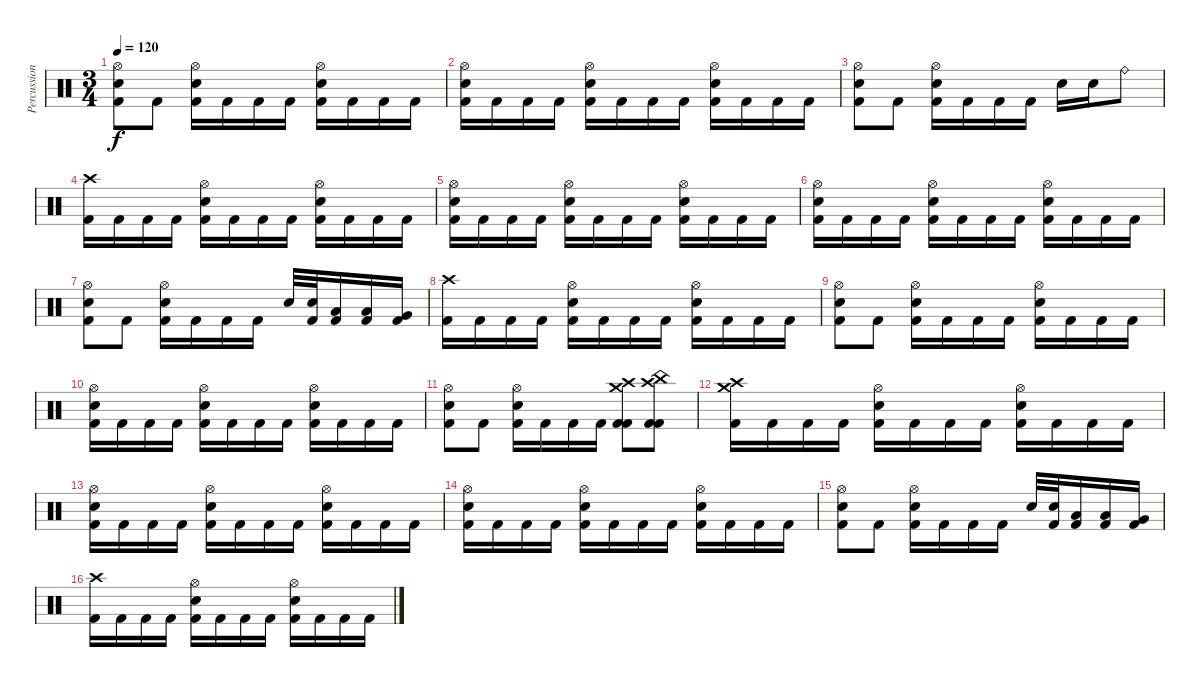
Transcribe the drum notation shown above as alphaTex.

\track ("Percussion" "Percussion") {instrument percussion}
\staff {score}
\articulation defaults
\ts (3 4)
\tempo 120
\clef neutral
\ks c
("Hi-Hat (open)" "Electric Snare (hit)" "Kick (hit) 2").8{dy f} "Kick (hit) 2".8 ("Hi-Hat (open)" "Electric Snare (hit)" "Kick (hit) 2").16 "Kick (hit) 2".16 "Kick (hit) 2".16 "Kick (hit) 2".16 ("Hi-Hat (open)" "Electric Snare (hit)" "Kick (hit) 2").16 "Kick (hit) 2".16 "Kick (hit) 2".16 "Kick (hit) 2".16 |
("Hi-Hat (open)" "Electric Snare (hit)" "Kick (hit) 2").16 "Kick (hit) 2".16 "Kick (hit) 2".16 "Kick (hit) 2".16 ("Hi-Hat (open)" "Electric Snare (hit)" "Kick (hit) 2").16 "Kick (hit) 2".16 "Kick (hit) 2".16 "Kick (hit) 2".16 ("Hi-Hat (open)" "Electric Snare (hit)" "Kick (hit) 2").16 "Kick (hit) 2".16 "Kick (hit) 2".16 "Kick (hit) 2".16 |
("Hi-Hat (open)" "Electric Snare (hit)" "Kick (hit) 2").8 "Kick (hit) 2".8 ("Hi-Hat (open)" "Electric Snare (hit)" "Kick (hit) 2").16 "Kick (hit) 2".16 "Kick (hit) 2".16 "Kick (hit) 2".16 "Electric Snare (hit)".16 "Electric Snare (hit)".16 "Ride (bell)".8 |
("Crash high (hit)" "Kick (hit) 2").16 "Kick (hit) 2".16 "Kick (hit) 2".16 "Kick (hit) 2".16 ("Hi-Hat (open)" "Electric Snare (hit)" "Kick (hit) 2").16 "Kick (hit) 2".16 "Kick (hit) 2".16 "Kick (hit) 2".16 ("Hi-Hat (open)" "Electric Snare (hit)" "Kick (hit) 2").16 "Kick (hit) 2".16 "Kick (hit) 2".16 "Kick (hit) 2".16 |
("Hi-Hat (open)" "Electric Snare (hit)" "Kick (hit) 2").16 "Kick (hit) 2".16 "Kick (hit) 2".16 "Kick (hit) 2".16 ("Hi-Hat (open)" "Electric Snare (hit)" "Kick (hit) 2").16 "Kick (hit) 2".16 "Kick (hit) 2".16 "Kick (hit) 2".16 ("Hi-Hat (open)" "Electric Snare (hit)" "Kick (hit) 2").16 "Kick (hit) 2".16 "Kick (hit) 2".16 "Kick (hit) 2".16 |
("Hi-Hat (open)" "Electric Snare (hit)" "Kick (hit) 2").16 "Kick (hit) 2".16 "Kick (hit) 2".16 "Kick (hit) 2".16 ("Hi-Hat (open)" "Electric Snare (hit)" "Kick (hit) 2").16 "Kick (hit) 2".16 "Kick (hit) 2".16 "Kick (hit) 2".16 ("Hi-Hat (open)" "Electric Snare (hit)" "Kick (hit) 2").16 "Kick (hit) 2".16 "Kick (hit) 2".16 "Kick (hit) 2".16 |
("Hi-Hat (open)" "Electric Snare (hit)" "Kick (hit) 2").8 "Kick (hit) 2".8 ("Hi-Hat (open)" "Electric Snare (hit)" "Kick (hit) 2").16 "Kick (hit) 2".16 "Kick (hit) 2".16 "Kick (hit) 2".16 "Electric Snare (hit)".32 ("Electric Snare (hit)" "Kick (hit) 2").32 ("Low Tom (hit)" "Kick (hit) 2").16 ("Low Tom (hit)" "Kick (hit) 2").16 ("Very Low Tom (hit)" "Kick (hit) 2").16 |
("Crash high (hit)" "Kick (hit) 2").16 "Kick (hit) 2".16 "Kick (hit) 2".16 "Kick (hit) 2".16 ("Hi-Hat (open)" "Electric Snare (hit)" "Kick (hit) 2").16 "Kick (hit) 2".16 "Kick (hit) 2".16 "Kick (hit) 2".16 ("Hi-Hat (open)" "Electric Snare (hit)" "Kick (hit) 2").16 "Kick (hit) 2".16 "Kick (hit) 2".16 "Kick (hit) 2".16 |
("Hi-Hat (open)" "Electric Snare (hit)" "Kick (hit) 2").8 "Kick (hit) 2".8 ("Hi-Hat (open)" "Electric Snare (hit)" "Kick (hit) 2").16 "Kick (hit) 2".16 "Kick (hit) 2".16 "Kick (hit) 2".16 ("Hi-Hat (open)" "Electric Snare (hit)" "Kick (hit) 2").16 "Kick (hit) 2".16 "Kick (hit) 2".16 "Kick (hit) 2".16 |
("Hi-Hat (open)" "Electric Snare (hit)" "Kick (hit) 2").16 "Kick (hit) 2".16 "Kick (hit) 2".16 "Kick (hit) 2".16 ("Hi-Hat (open)" "Electric Snare (hit)" "Kick (hit) 2").16 "Kick (hit) 2".16 "Kick (hit) 2".16 "Kick (hit) 2".16 ("Hi-Hat (open)" "Electric Snare (hit)" "Kick (hit) 2").16 "Kick (hit) 2".16 "Kick (hit) 2".16 "Kick (hit) 2".16 |
("Hi-Hat (open)" "Electric Snare (hit)" "Kick (hit) 2").8 "Kick (hit) 2".8 ("Hi-Hat (open)" "Electric Snare (hit)" "Kick (hit) 2").16 "Kick (hit) 2".16 "Kick (hit) 2".16 "Kick (hit) 2".16 ("Crash high (hit)" "Crash medium (hit)" "Kick (hit) 2" "Kick (hit) 2").8 ("Crash high (hit)" "China (hit)" "Kick (hit) 2" "Kick (hit) 2").8 |
("Crash high (hit)" "Crash medium (hit)" "Kick (hit) 2").16 "Kick (hit) 2".16 "Kick (hit) 2".16 "Kick (hit) 2".16 ("Hi-Hat (open)" "Electric Snare (hit)" "Kick (hit) 2").16 "Kick (hit) 2".16 "Kick (hit) 2".16 "Kick (hit) 2".16 ("Hi-Hat (open)" "Electric Snare (hit)" "Kick (hit) 2").16 "Kick (hit) 2".16 "Kick (hit) 2".16 "Kick (hit) 2".16 |
("Hi-Hat (open)" "Electric Snare (hit)" "Kick (hit) 2").16 "Kick (hit) 2".16 "Kick (hit) 2".16 "Kick (hit) 2".16 ("Hi-Hat (open)" "Electric Snare (hit)" "Kick (hit) 2").16 "Kick (hit) 2".16 "Kick (hit) 2".16 "Kick (hit) 2".16 ("Hi-Hat (open)" "Electric Snare (hit)" "Kick (hit) 2").16 "Kick (hit) 2".16 "Kick (hit) 2".16 "Kick (hit) 2".16 |
("Hi-Hat (open)" "Electric Snare (hit)" "Kick (hit) 2").16 "Kick (hit) 2".16 "Kick (hit) 2".16 "Kick (hit) 2".16 ("Hi-Hat (open)" "Electric Snare (hit)" "Kick (hit) 2").16 "Kick (hit) 2".16 "Kick (hit) 2".16 "Kick (hit) 2".16 ("Hi-Hat (open)" "Electric Snare (hit)" "Kick (hit) 2").16 "Kick (hit) 2".16 "Kick (hit) 2".16 "Kick (hit) 2".16 |
("Hi-Hat (open)" "Electric Snare (hit)" "Kick (hit) 2").8 "Kick (hit) 2".8 ("Hi-Hat (open)" "Electric Snare (hit)" "Kick (hit) 2").16 "Kick (hit) 2".16 "Kick (hit) 2".16 "Kick (hit) 2".16 "Electric Snare (hit)".32 ("Electric Snare (hit)" "Kick (hit) 2").32 ("Low Tom (hit)" "Kick (hit) 2").16 ("Low Tom (hit)" "Kick (hit) 2").16 ("Very Low Tom (hit)" "Kick (hit) 2").16 |
("Crash high (hit)" "Kick (hit) 2").16 "Kick (hit) 2".16 "Kick (hit) 2".16 "Kick (hit) 2".16 ("Hi-Hat (open)" "Electric Snare (hit)" "Kick (hit) 2").16 "Kick (hit) 2".16 "Kick (hit) 2".16 "Kick (hit) 2".16 ("Hi-Hat (open)" "Electric Snare (hit)" "Kick (hit) 2").16 "Kick (hit) 2".16 "Kick (hit) 2".16 "Kick (hit) 2".16
